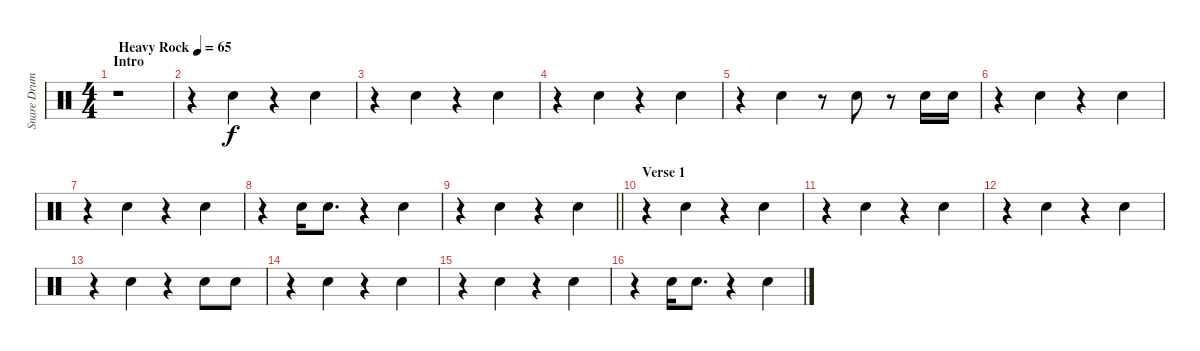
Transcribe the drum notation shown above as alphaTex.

\track ("Snare Drum - reverb" "Snare Drum") {instrument percussion}
\staff {score}
\articulation defaults
\ts (4 4)
\section ("" "Intro")
\tempo (65 "Heavy Rock")
\clef neutral
\ks c
r.1{dy f} |
r.4 "Snare (hit) 2".4 r.4 "Snare (hit) 2".4 |
r.4 "Snare (hit) 2".4 r.4 "Snare (hit) 2".4 |
r.4 "Snare (hit) 2".4 r.4 "Snare (hit) 2".4 |
r.4 "Snare (hit) 2".4 r.8 "Snare (hit) 2".8 r.8 "Snare (hit) 2".16 "Snare (hit) 2".16 |
r.4 "Snare (hit) 2".4 r.4 "Snare (hit) 2".4 |
r.4 "Snare (hit) 2".4 r.4 "Snare (hit) 2".4 |
r.4{beam merge} "Snare (hit) 2".16 "Snare (hit) 2".8{d} r.4 "Snare (hit) 2".4 |
\barLineRight lightlight
r.4 "Snare (hit) 2".4 r.4 "Snare (hit) 2".4 |
\section ("" "Verse 1")
r.4 "Snare (hit) 2".4 r.4 "Snare (hit) 2".4 |
r.4 "Snare (hit) 2".4 r.4 "Snare (hit) 2".4 |
r.4 "Snare (hit) 2".4 r.4 "Snare (hit) 2".4 |
r.4 "Snare (hit) 2".4 r.4{beam merge} "Snare (hit) 2".8 "Snare (hit) 2".8 |
r.4 "Snare (hit) 2".4 r.4 "Snare (hit) 2".4 |
r.4 "Snare (hit) 2".4 r.4 "Snare (hit) 2".4 |
r.4{beam merge} "Snare (hit) 2".16 "Snare (hit) 2".8{d} r.4 "Snare (hit) 2".4
